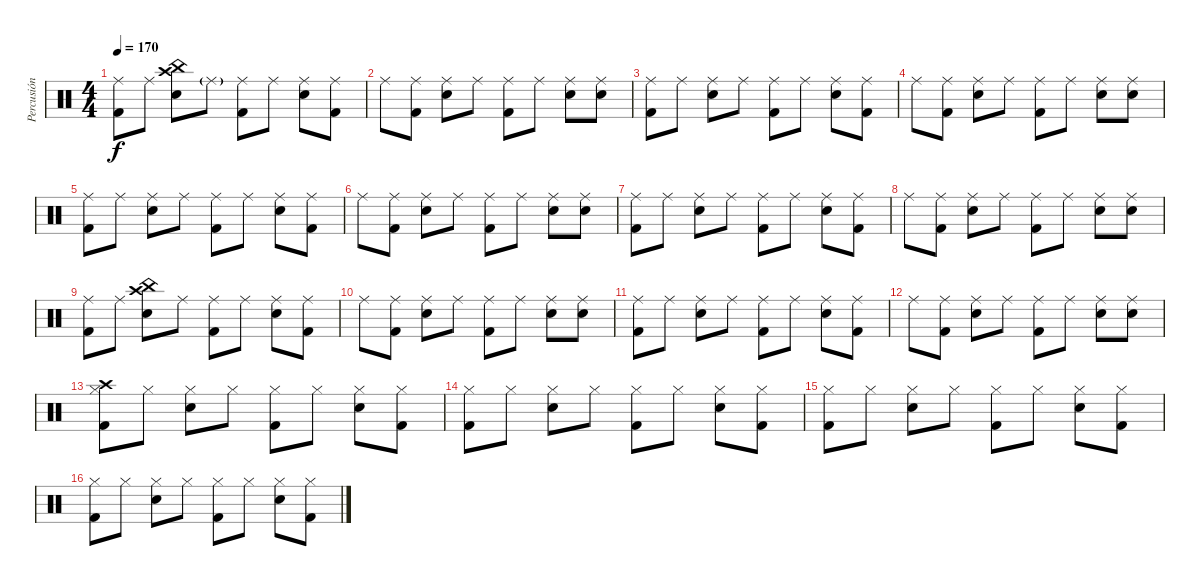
\track ("Percusión" "Percusión") {instrument percussion}
\staff {score}
\articulation defaults
\ts (4 4)
\tempo 170
\clef neutral
\ks c
("Ride (middle)" "Kick (hit) 2").8{dy f} "Ride (middle)".8 ("Crash high (hit)" "China (hit)" "Electric Snare (hit)").8 "Ride (middle)"{g}.8 ("Ride (middle)" "Kick (hit) 2").8 "Ride (middle)".8 ("Ride (middle)" "Electric Snare (hit)").8 ("Ride (middle)" "Kick (hit) 2").8 |
"Ride (middle)".8 ("Ride (middle)" "Kick (hit) 2").8 ("Ride (middle)" "Electric Snare (hit)").8 "Ride (middle)".8 ("Ride (middle)" "Kick (hit) 2").8 "Ride (middle)".8 ("Ride (middle)" "Electric Snare (hit)").8 ("Ride (middle)" "Electric Snare (hit)").8 |
("Ride (middle)" "Kick (hit) 2").8 "Ride (middle)".8 ("Ride (middle)" "Electric Snare (hit)").8 "Ride (middle)".8 ("Ride (middle)" "Kick (hit) 2").8 "Ride (middle)".8 ("Ride (middle)" "Electric Snare (hit)").8 ("Ride (middle)" "Kick (hit) 2").8 |
"Ride (middle)".8 ("Ride (middle)" "Kick (hit) 2").8 ("Ride (middle)" "Electric Snare (hit)").8 "Ride (middle)".8 ("Ride (middle)" "Kick (hit) 2").8 "Ride (middle)".8 ("Ride (middle)" "Electric Snare (hit)").8 ("Ride (middle)" "Electric Snare (hit)").8 |
("Ride (middle)" "Kick (hit) 2").8 "Ride (middle)".8 ("Ride (middle)" "Electric Snare (hit)").8 "Ride (middle)".8 ("Ride (middle)" "Kick (hit) 2").8 "Ride (middle)".8 ("Ride (middle)" "Electric Snare (hit)").8 ("Ride (middle)" "Kick (hit) 2").8 |
"Ride (middle)".8 ("Ride (middle)" "Kick (hit) 2").8 ("Ride (middle)" "Electric Snare (hit)").8 "Ride (middle)".8 ("Ride (middle)" "Kick (hit) 2").8 "Ride (middle)".8 ("Ride (middle)" "Electric Snare (hit)").8 ("Ride (middle)" "Electric Snare (hit)").8 |
("Ride (middle)" "Kick (hit) 2").8 "Ride (middle)".8 ("Ride (middle)" "Electric Snare (hit)").8 "Ride (middle)".8 ("Ride (middle)" "Kick (hit) 2").8 "Ride (middle)".8 ("Ride (middle)" "Electric Snare (hit)").8 ("Ride (middle)" "Kick (hit) 2").8 |
"Ride (middle)".8 ("Ride (middle)" "Kick (hit) 2").8 ("Ride (middle)" "Electric Snare (hit)").8 "Ride (middle)".8 ("Ride (middle)" "Kick (hit) 2").8 "Ride (middle)".8 ("Ride (middle)" "Electric Snare (hit)").8 ("Ride (middle)" "Electric Snare (hit)").8 |
("Ride (middle)" "Kick (hit) 2").8 "Ride (middle)".8 ("Crash high (hit)" "China (hit)" "Electric Snare (hit)").8 "Ride (middle)".8 ("Ride (middle)" "Kick (hit) 2").8 "Ride (middle)".8 ("Ride (middle)" "Electric Snare (hit)").8 ("Ride (middle)" "Kick (hit) 2").8 |
"Ride (middle)".8 ("Ride (middle)" "Kick (hit) 2").8 ("Ride (middle)" "Electric Snare (hit)").8 "Ride (middle)".8 ("Ride (middle)" "Kick (hit) 2").8 "Ride (middle)".8 ("Ride (middle)" "Electric Snare (hit)").8 ("Ride (middle)" "Electric Snare (hit)").8 |
("Ride (middle)" "Kick (hit) 2").8 "Ride (middle)".8 ("Ride (middle)" "Electric Snare (hit)").8 "Ride (middle)".8 ("Ride (middle)" "Kick (hit) 2").8 "Ride (middle)".8 ("Ride (middle)" "Electric Snare (hit)").8 ("Ride (middle)" "Kick (hit) 2").8 |
"Ride (middle)".8 ("Ride (middle)" "Kick (hit) 2").8 ("Ride (middle)" "Electric Snare (hit)").8 "Ride (middle)".8 ("Ride (middle)" "Kick (hit) 2").8 "Ride (middle)".8 ("Ride (middle)" "Electric Snare (hit)").8 ("Ride (middle)" "Electric Snare (hit)").8 |
("Crash high (hit)" "Hi-Hat (closed)" "Kick (hit) 2").8 "Hi-Hat (closed)".8 ("Hi-Hat (closed)" "Electric Snare (hit)").8 "Hi-Hat (closed)".8 ("Hi-Hat (closed)" "Kick (hit) 2").8 "Hi-Hat (closed)".8 ("Hi-Hat (closed)" "Electric Snare (hit)").8 ("Hi-Hat (closed)" "Kick (hit) 2").8 |
("Hi-Hat (closed)" "Kick (hit) 2").8 "Hi-Hat (closed)".8 ("Hi-Hat (closed)" "Electric Snare (hit)").8 "Hi-Hat (closed)".8 ("Hi-Hat (closed)" "Kick (hit) 2").8 "Hi-Hat (closed)".8 ("Hi-Hat (closed)" "Electric Snare (hit)").8 ("Hi-Hat (closed)" "Kick (hit) 2").8 |
("Hi-Hat (closed)" "Kick (hit) 2").8 "Hi-Hat (closed)".8 ("Hi-Hat (closed)" "Electric Snare (hit)").8 "Hi-Hat (closed)".8 ("Hi-Hat (closed)" "Kick (hit) 2").8 "Hi-Hat (closed)".8 ("Hi-Hat (closed)" "Electric Snare (hit)").8 ("Hi-Hat (closed)" "Kick (hit) 2").8 |
("Hi-Hat (closed)" "Kick (hit) 2").8 "Hi-Hat (closed)".8 ("Hi-Hat (closed)" "Electric Snare (hit)").8 "Hi-Hat (closed)".8 ("Hi-Hat (closed)" "Kick (hit) 2").8 "Hi-Hat (closed)".8 ("Hi-Hat (closed)" "Electric Snare (hit)").8 ("Hi-Hat (closed)" "Kick (hit) 2").8
